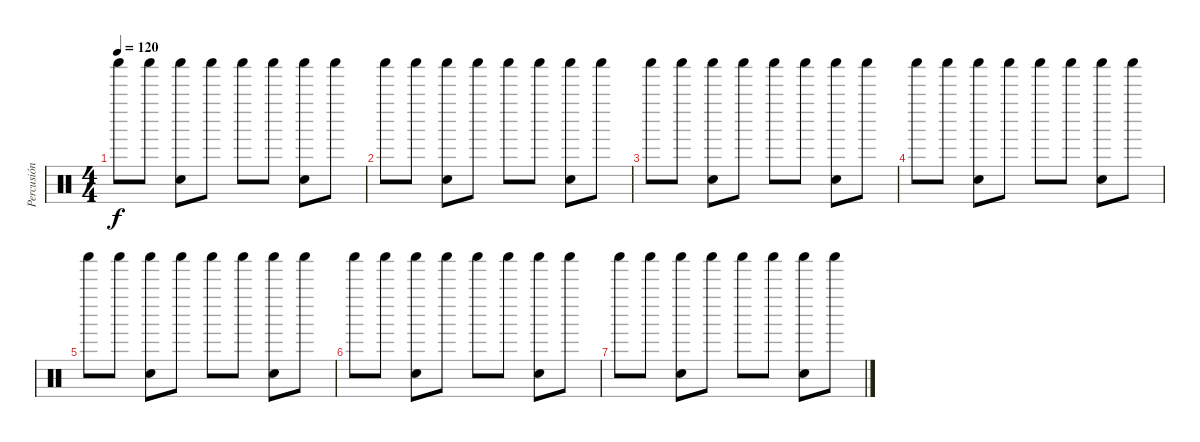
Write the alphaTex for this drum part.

\track ("Percusión" "Percusión") {instrument percussion}
\staff {score}
\articulation defaults
\ts (4 4)
\tempo 120
\clef neutral
\ks c "Shaker (hit)".8{dy f} "Shaker (hit)".8
("Shaker (hit)" "Hand Clap (hit)").8 "Shaker (hit)".8 "Shaker (hit)".8 "Shaker (hit)".8 ("Shaker (hit)" "Hand Clap (hit)").8 "Shaker (hit)".8 |
"Shaker (hit)".8 "Shaker (hit)".8 ("Shaker (hit)" "Hand Clap (hit)").8 "Shaker (hit)".8 "Shaker (hit)".8 "Shaker (hit)".8 ("Shaker (hit)" "Hand Clap (hit)").8 "Shaker (hit)".8 |
"Shaker (hit)".8 "Shaker (hit)".8 ("Shaker (hit)" "Hand Clap (hit)").8 "Shaker (hit)".8 "Shaker (hit)".8 "Shaker (hit)".8 ("Shaker (hit)" "Hand Clap (hit)").8 "Shaker (hit)".8 |
"Shaker (hit)".8 "Shaker (hit)".8 ("Shaker (hit)" "Hand Clap (hit)").8 "Shaker (hit)".8 "Shaker (hit)".8 "Shaker (hit)".8 ("Shaker (hit)" "Hand Clap (hit)").8 "Shaker (hit)".8 |
"Shaker (hit)".8 "Shaker (hit)".8 ("Shaker (hit)" "Hand Clap (hit)").8 "Shaker (hit)".8 "Shaker (hit)".8 "Shaker (hit)".8 ("Shaker (hit)" "Hand Clap (hit)").8 "Shaker (hit)".8 |
"Shaker (hit)".8 "Shaker (hit)".8 ("Shaker (hit)" "Hand Clap (hit)").8 "Shaker (hit)".8 "Shaker (hit)".8 "Shaker (hit)".8 ("Shaker (hit)" "Hand Clap (hit)").8 "Shaker (hit)".8 |
"Shaker (hit)".8 "Shaker (hit)".8 ("Shaker (hit)" "Hand Clap (hit)").8 "Shaker (hit)".8 "Shaker (hit)".8 "Shaker (hit)".8 ("Shaker (hit)" "Hand Clap (hit)").8 "Shaker (hit)".8
